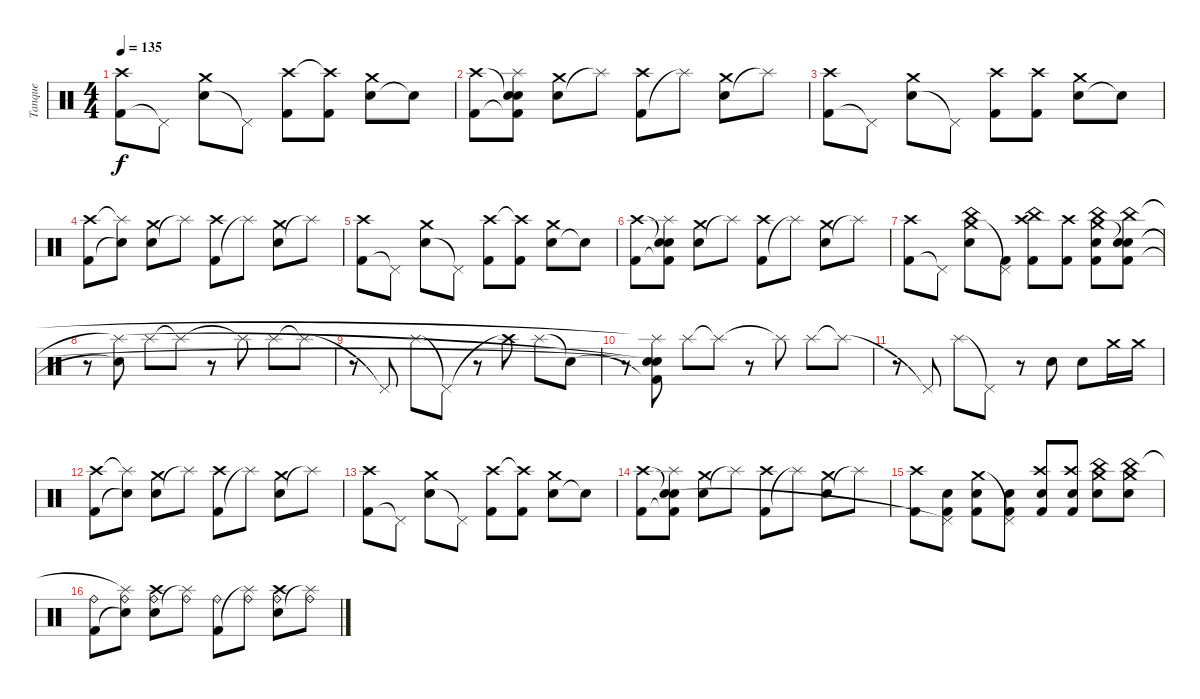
\track ("Tanque" "Tanque") {instrument percussion}
\staff {score}
\articulation defaults
\ts (4 4)
\tempo 135
\clef neutral
\ks c
("Kick (hit) 2" "Crash high (hit)").8{dy f} "Pedal Hi-Hat (hit)"{t}.8 ("Snare (hit) 2" "Crash medium (hit)").8 "Pedal Hi-Hat (hit)"{t}.8 ("Kick (hit) 2" "Crash high (hit)").8 ("Kick (hit) 2" "Crash high (hit)"{t}).8 ("Snare (hit) 2" "Crash medium (hit)").8 "Snare (hit)"{t}.8 |
("Kick (hit) 2" "Crash high (hit)").8 ("Kick (hit) 2"{t} "Snare (hit)"{t} "Snare (hit)" "Splash (hit)").8 ("Snare (hit) 2" "Crash medium (hit)").8 "Splash (hit)"{t}.8 ("Kick (hit) 2" "Crash high (hit)").8 "Splash (hit)"{t}.8 ("Snare (hit) 2" "Crash medium (hit)").8 "Splash (hit)"{t}.8 |
("Kick (hit) 2" "Crash high (hit)").8 "Pedal Hi-Hat (hit)"{t}.8 ("Snare (hit) 2" "Crash medium (hit)").8 "Pedal Hi-Hat (hit)"{t}.8 ("Kick (hit) 2" "Crash high (hit)").8 ("Kick (hit) 2" "Crash high (hit)").8 ("Snare (hit) 2" "Crash medium (hit)").8 "Snare (hit)"{t}.8 |
("Kick (hit) 2" "Crash high (hit)").8 ("Snare (hit)"{t} "Splash (hit)"{t}).8 ("Snare (hit) 2" "Crash medium (hit)").8 "Splash (hit)"{t}.8 ("Kick (hit) 2" "Crash high (hit)").8 "Splash (hit)"{t}.8 ("Snare (hit) 2" "Crash medium (hit)").8 "Splash (hit)"{t}.8 |
("Kick (hit) 2" "Crash high (hit)").8 "Pedal Hi-Hat (hit)"{t}.8 ("Snare (hit) 2" "Crash medium (hit)").8 "Pedal Hi-Hat (hit)"{t}.8 ("Kick (hit) 2" "Crash high (hit)").8 ("Kick (hit) 2" "Crash high (hit)"{t}).8 ("Snare (hit) 2" "Crash medium (hit)").8 "Snare (hit)"{t}.8 |
("Kick (hit) 2" "Crash high (hit)").8 ("Kick (hit) 2"{t} "Snare (hit)"{t} "Snare (hit)" "Splash (hit)").8 ("Snare (hit) 2" "Crash medium (hit)").8 "Splash (hit)"{t}.8 ("Kick (hit) 2" "Crash high (hit)").8 "Splash (hit)"{t}.8 ("Snare (hit) 2" "Crash medium (hit)").8 "Splash (hit)"{t}.8 |
("Kick (hit) 2" "Crash high (hit)").8 "Pedal Hi-Hat (hit)"{t}.8 ("Snare (hit) 2" "Crash medium (hit)" "China (hit)").8 ("Kick (hit) 2" "Pedal Hi-Hat (hit)"{t}).8 ("Kick (hit) 2" "Crash high (hit)" "China (hit)").8 ("Kick (hit) 2" "Crash high (hit)").8 ("Kick (hit) 2" "Snare (hit) 2" "Crash medium (hit)" "China (hit)").8 ("Kick (hit) 2" "Snare (hit) 2" "Snare (hit)"{t} "China (hit)").8 |
r.8 ("Snare (hit)"{t} "Splash (hit)"{t}).8 "Splash (hit)".8 "Splash (hit)"{t}.8 r.8 "Splash (hit)"{t}.8 "Splash (hit)".8 "Splash (hit)"{t}.8 |
r.8 "Pedal Hi-Hat (hit)"{t}.8 "Splash (hit)".8 "Pedal Hi-Hat (hit)"{t}.8 r.8 "Crash high (hit)"{t}.8 "Splash (hit)".8 "Snare (hit)"{t}.8 |
r.8 ("Kick (hit) 2"{t} "Snare (hit)"{t} "Snare (hit)"{t} "Splash (hit)"{t}).8 "Splash (hit)".8 "Splash (hit)"{t}.8 r.8 "Splash (hit)"{t}.8 "Splash (hit)".8 "Splash (hit)"{t}.8 |
r.8 "Pedal Hi-Hat (hit)"{t}.8 "Splash (hit)".8 "Pedal Hi-Hat (hit)"{t}.8 r.8 "Snare (hit) 2".8 "Snare (hit) 2".8 "Crash medium (hit)".16 "Crash medium (hit)".16 |
("Kick (hit) 2" "Crash high (hit)").8 ("Snare (hit)"{t} "Splash (hit)"{t}).8 ("Snare (hit) 2" "Crash medium (hit)").8 "Splash (hit)"{t}.8 ("Kick (hit) 2" "Crash high (hit)").8 "Splash (hit)"{t}.8 ("Snare (hit) 2" "Crash medium (hit)").8 "Splash (hit)"{t}.8 |
("Kick (hit) 2" "Crash high (hit)").8 "Pedal Hi-Hat (hit)"{t}.8 ("Snare (hit) 2" "Crash medium (hit)").8 "Pedal Hi-Hat (hit)"{t}.8 ("Kick (hit) 2" "Crash high (hit)").8 ("Kick (hit) 2" "Crash high (hit)"{t}).8 ("Snare (hit) 2" "Crash medium (hit)").8 "Snare (hit)"{t}.8 |
("Kick (hit) 2" "Crash high (hit)").8 ("Kick (hit) 2"{t} "Snare (hit)"{t} "Snare (hit)" "Splash (hit)").8 ("Snare (hit) 2" "Crash medium (hit)").8 "Splash (hit)"{t}.8 ("Kick (hit) 2" "Crash high (hit)").8 "Splash (hit)"{t}.8 ("Snare (hit) 2" "Crash medium (hit)").8 "Splash (hit)"{t}.8 |
("Kick (hit) 2" "Crash high (hit)").8 ("Kick (hit) 2" "Snare (hit) 2" "Pedal Hi-Hat (hit)"{t}).8 ("Kick (hit) 2" "Snare (hit) 2" "Crash medium (hit)").8 ("Kick (hit) 2" "Snare (hit) 2" "Pedal Hi-Hat (hit)"{t}).8 ("Kick (hit) 2" "Snare (hit) 2" "Crash high (hit)").8 ("Kick (hit) 2" "Snare (hit) 2" "Crash high (hit)").8 ("Snare (hit) 2" "Crash medium (hit)" "China (hit)").8 ("Snare (hit) 2" "Crash medium (hit)" "China (hit)").8 |
("Ride (bell)" "Kick (hit) 2").8 ("Ride (bell)" "Snare (hit)"{t} "Splash (hit)"{t}).8 ("Ride (bell)" "Snare (hit) 2" "Crash high (hit)").8 ("Ride (bell)" "Splash (hit)"{t}).8 ("Ride (bell)" "Kick (hit) 2").8 ("Ride (bell)" "Splash (hit)"{t}).8 ("Ride (bell)" "Snare (hit) 2" "Crash high (hit)").8 ("Ride (bell)" "Splash (hit)"{t}).8
